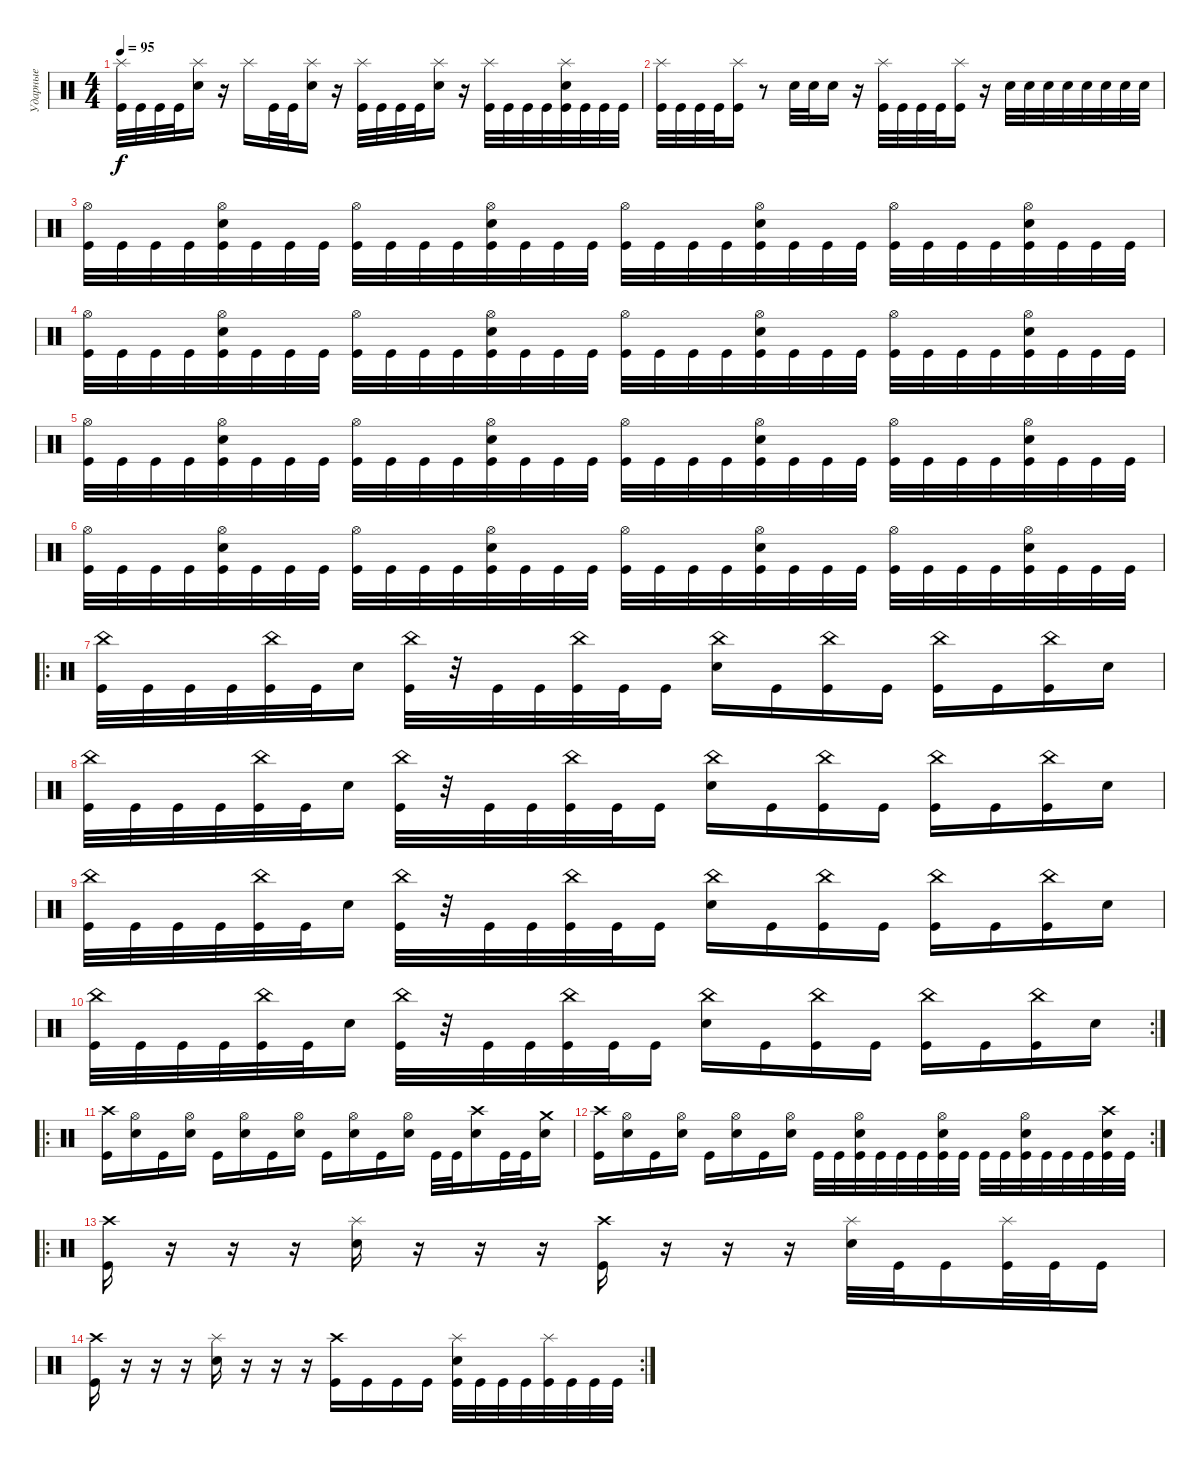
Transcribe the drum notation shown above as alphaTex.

\track ("Ударные" "Ударные") {instrument percussion}
\staff {score}
\articulation defaults
\ts (4 4)
\tempo 95
\clef neutral
\ks c
("Kick (hit)" "Splash (hit)").32{dy f} "Kick (hit)".32 "Kick (hit)".32 "Kick (hit)".32 ("Electric Snare (hit)" "Splash (hit)").16 r.16 "Splash (hit)".16 "Kick (hit)".32 "Kick (hit)".32 ("Electric Snare (hit)" "Splash (hit)").16 r.16 ("Kick (hit)" "Splash (hit)").32 "Kick (hit)".32 "Kick (hit)".32 "Kick (hit)".32 ("Electric Snare (hit)" "Splash (hit)").16 r.16 ("Kick (hit)" "Splash (hit)").32 "Kick (hit)".32 "Kick (hit)".32 "Kick (hit)".32 ("Kick (hit)" "Electric Snare (hit)" "Splash (hit)").32 "Kick (hit)".32 "Kick (hit)".32 "Kick (hit)".32 |
("Kick (hit)" "Splash (hit)").32 "Kick (hit)".32 "Kick (hit)".32 "Kick (hit)".32 ("Kick (hit)" "Splash (hit)").16 r.8 "Electric Snare (hit)".32 "Electric Snare (hit)".32 "Electric Snare (hit)".16 r.16 ("Kick (hit)" "Splash (hit)").32 "Kick (hit)".32 "Kick (hit)".32 "Kick (hit)".32 ("Kick (hit)" "Splash (hit)").16 r.16 "Electric Snare (hit)".32 "Electric Snare (hit)".32 "Electric Snare (hit)".32 "Electric Snare (hit)".32 "Electric Snare (hit)".32 "Electric Snare (hit)".32 "Electric Snare (hit)".32 "Electric Snare (hit)".32 |
("Kick (hit)" "Hi-Hat (open)").32 "Kick (hit)".32 "Kick (hit)".32 "Kick (hit)".32 ("Kick (hit)" "Hi-Hat (open)" "Electric Snare (hit)").32 "Kick (hit)".32 "Kick (hit)".32 "Kick (hit)".32 ("Kick (hit)" "Hi-Hat (open)").32 "Kick (hit)".32 "Kick (hit)".32 "Kick (hit)".32 ("Kick (hit)" "Hi-Hat (open)" "Electric Snare (hit)").32 "Kick (hit)".32 "Kick (hit)".32 "Kick (hit)".32 ("Kick (hit)" "Hi-Hat (open)").32 "Kick (hit)".32 "Kick (hit)".32 "Kick (hit)".32 ("Kick (hit)" "Hi-Hat (open)" "Electric Snare (hit)").32 "Kick (hit)".32 "Kick (hit)".32 "Kick (hit)".32 ("Kick (hit)" "Hi-Hat (open)").32 "Kick (hit)".32 "Kick (hit)".32 "Kick (hit)".32 ("Kick (hit)" "Hi-Hat (open)" "Electric Snare (hit)").32 "Kick (hit)".32 "Kick (hit)".32 "Kick (hit)".32 |
("Kick (hit)" "Hi-Hat (open)").32 "Kick (hit)".32 "Kick (hit)".32 "Kick (hit)".32 ("Kick (hit)" "Hi-Hat (open)" "Electric Snare (hit)").32 "Kick (hit)".32 "Kick (hit)".32 "Kick (hit)".32 ("Kick (hit)" "Hi-Hat (open)").32 "Kick (hit)".32 "Kick (hit)".32 "Kick (hit)".32 ("Kick (hit)" "Hi-Hat (open)" "Electric Snare (hit)").32 "Kick (hit)".32 "Kick (hit)".32 "Kick (hit)".32 ("Kick (hit)" "Hi-Hat (open)").32 "Kick (hit)".32 "Kick (hit)".32 "Kick (hit)".32 ("Kick (hit)" "Hi-Hat (open)" "Electric Snare (hit)").32 "Kick (hit)".32 "Kick (hit)".32 "Kick (hit)".32 ("Kick (hit)" "Hi-Hat (open)").32 "Kick (hit)".32 "Kick (hit)".32 "Kick (hit)".32 ("Kick (hit)" "Hi-Hat (open)" "Electric Snare (hit)").32 "Kick (hit)".32 "Kick (hit)".32 "Kick (hit)".32 |
("Kick (hit)" "Hi-Hat (open)").32 "Kick (hit)".32 "Kick (hit)".32 "Kick (hit)".32 ("Kick (hit)" "Hi-Hat (open)" "Electric Snare (hit)").32 "Kick (hit)".32 "Kick (hit)".32 "Kick (hit)".32 ("Kick (hit)" "Hi-Hat (open)").32 "Kick (hit)".32 "Kick (hit)".32 "Kick (hit)".32 ("Kick (hit)" "Hi-Hat (open)" "Electric Snare (hit)").32 "Kick (hit)".32 "Kick (hit)".32 "Kick (hit)".32 ("Kick (hit)" "Hi-Hat (open)").32 "Kick (hit)".32 "Kick (hit)".32 "Kick (hit)".32 ("Kick (hit)" "Hi-Hat (open)" "Electric Snare (hit)").32 "Kick (hit)".32 "Kick (hit)".32 "Kick (hit)".32 ("Kick (hit)" "Hi-Hat (open)").32 "Kick (hit)".32 "Kick (hit)".32 "Kick (hit)".32 ("Kick (hit)" "Hi-Hat (open)" "Electric Snare (hit)").32 "Kick (hit)".32 "Kick (hit)".32 "Kick (hit)".32 |
("Kick (hit)" "Hi-Hat (open)").32 "Kick (hit)".32 "Kick (hit)".32 "Kick (hit)".32 ("Kick (hit)" "Hi-Hat (open)" "Electric Snare (hit)").32 "Kick (hit)".32 "Kick (hit)".32 "Kick (hit)".32 ("Kick (hit)" "Hi-Hat (open)").32 "Kick (hit)".32 "Kick (hit)".32 "Kick (hit)".32 ("Kick (hit)" "Hi-Hat (open)" "Electric Snare (hit)").32 "Kick (hit)".32 "Kick (hit)".32 "Kick (hit)".32 ("Kick (hit)" "Hi-Hat (open)").32 "Kick (hit)".32 "Kick (hit)".32 "Kick (hit)".32 ("Kick (hit)" "Hi-Hat (open)" "Electric Snare (hit)").32 "Kick (hit)".32 "Kick (hit)".32 "Kick (hit)".32 ("Kick (hit)" "Hi-Hat (open)").32 "Kick (hit)".32 "Kick (hit)".32 "Kick (hit)".32 ("Kick (hit)" "Hi-Hat (open)" "Electric Snare (hit)").32 "Kick (hit)".32 "Kick (hit)".32 "Kick (hit)".32 |
\ro
("China (hit)" "Kick (hit)").32 "Kick (hit)".32 "Kick (hit)".32 "Kick (hit)".32 ("China (hit)" "Kick (hit)").32 "Kick (hit)".32 "Electric Snare (hit)".16 ("China (hit)" "Kick (hit)").32 r.32 "Kick (hit)".32 "Kick (hit)".32 ("China (hit)" "Kick (hit)").32 "Kick (hit)".32 "Kick (hit)".16 ("China (hit)" "Electric Snare (hit)").16 "Kick (hit)".16 ("China (hit)" "Kick (hit)").16 "Kick (hit)".16 ("China (hit)" "Kick (hit)").16 "Kick (hit)".16 ("China (hit)" "Kick (hit)").16 "Electric Snare (hit)".16 |
("China (hit)" "Kick (hit)").32 "Kick (hit)".32 "Kick (hit)".32 "Kick (hit)".32 ("China (hit)" "Kick (hit)").32 "Kick (hit)".32 "Electric Snare (hit)".16 ("China (hit)" "Kick (hit)").32 r.32 "Kick (hit)".32 "Kick (hit)".32 ("China (hit)" "Kick (hit)").32 "Kick (hit)".32 "Kick (hit)".16 ("China (hit)" "Electric Snare (hit)").16 "Kick (hit)".16 ("China (hit)" "Kick (hit)").16 "Kick (hit)".16 ("China (hit)" "Kick (hit)").16 "Kick (hit)".16 ("China (hit)" "Kick (hit)").16 "Electric Snare (hit)".16 |
("China (hit)" "Kick (hit)").32 "Kick (hit)".32 "Kick (hit)".32 "Kick (hit)".32 ("China (hit)" "Kick (hit)").32 "Kick (hit)".32 "Electric Snare (hit)".16 ("China (hit)" "Kick (hit)").32 r.32 "Kick (hit)".32 "Kick (hit)".32 ("China (hit)" "Kick (hit)").32 "Kick (hit)".32 "Kick (hit)".16 ("China (hit)" "Electric Snare (hit)").16 "Kick (hit)".16 ("China (hit)" "Kick (hit)").16 "Kick (hit)".16 ("China (hit)" "Kick (hit)").16 "Kick (hit)".16 ("China (hit)" "Kick (hit)").16 "Electric Snare (hit)".16 |
\rc 2
("China (hit)" "Kick (hit)").32 "Kick (hit)".32 "Kick (hit)".32 "Kick (hit)".32 ("China (hit)" "Kick (hit)").32 "Kick (hit)".32 "Electric Snare (hit)".16 ("China (hit)" "Kick (hit)").32 r.32 "Kick (hit)".32 "Kick (hit)".32 ("China (hit)" "Kick (hit)").32 "Kick (hit)".32 "Kick (hit)".16 ("China (hit)" "Electric Snare (hit)").16 "Kick (hit)".16 ("China (hit)" "Kick (hit)").16 "Kick (hit)".16 ("China (hit)" "Kick (hit)").16 "Kick (hit)".16 ("China (hit)" "Kick (hit)").16 "Electric Snare (hit)".16 |
\ro
("Crash high (hit)" "Kick (hit)").16 ("Hi-Hat (open)" "Electric Snare (hit)").16 "Kick (hit)".16 ("Hi-Hat (open)" "Electric Snare (hit)").16 "Kick (hit)".16 ("Hi-Hat (open)" "Electric Snare (hit)").16 "Kick (hit)".16 ("Hi-Hat (open)" "Electric Snare (hit)").16 "Kick (hit)".16 ("Hi-Hat (open)" "Electric Snare (hit)").16 "Kick (hit)".16 ("Hi-Hat (open)" "Electric Snare (hit)").16 "Kick (hit)".32 "Kick (hit)".32 ("Crash high (hit)" "Electric Snare (hit)").16 "Kick (hit)".32 "Kick (hit)".32 ("Crash medium (hit)" "Electric Snare (hit)").16 |
\rc 2
("Crash high (hit)" "Kick (hit)").16 ("Hi-Hat (open)" "Electric Snare (hit)").16 "Kick (hit)".16 ("Hi-Hat (open)" "Electric Snare (hit)").16 "Kick (hit)".16 ("Hi-Hat (open)" "Electric Snare (hit)").16 "Kick (hit)".16 ("Hi-Hat (open)" "Electric Snare (hit)").16 "Kick (hit)".32 "Kick (hit)".32 ("Hi-Hat (open)" "Electric Snare (hit)" "Kick (hit)").32 "Kick (hit)".32 "Kick (hit)".32 "Kick (hit)".32 ("Hi-Hat (open)" "Electric Snare (hit)" "Kick (hit)").32 "Kick (hit)".32 "Kick (hit)".32 "Kick (hit)".32 ("Hi-Hat (open)" "Electric Snare (hit)" "Kick (hit)").32 "Kick (hit)".32 "Kick (hit)".32 "Kick (hit)".32 ("Crash high (hit)" "Electric Snare (hit)" "Kick (hit)").32 "Kick (hit)".32 |
\ro
("Crash high (hit)" "Kick (hit)").16 r.16 r.16 r.16 ("Splash (hit)" "Electric Snare (hit)").16 r.16 r.16 r.16 ("Crash high (hit)" "Kick (hit)").16 r.16 r.16 r.16 ("Splash (hit)" "Electric Snare (hit)").32 "Kick (hit)".32 "Kick (hit)".16 ("Splash (hit)" "Kick (hit)").32 "Kick (hit)".32 "Kick (hit)".16 |
\rc 2
("Crash high (hit)" "Kick (hit)").16 r.16 r.16 r.16 ("Splash (hit)" "Electric Snare (hit)").16 r.16 r.16 r.16 ("Crash high (hit)" "Kick (hit)").16 "Kick (hit)".16 "Kick (hit)".16 "Kick (hit)".16 ("Splash (hit)" "Electric Snare (hit)" "Kick (hit)").32 "Kick (hit)".32 "Kick (hit)".32 "Kick (hit)".32 ("Splash (hit)" "Kick (hit)").32 "Kick (hit)".32 "Kick (hit)".32 "Kick (hit)".32
